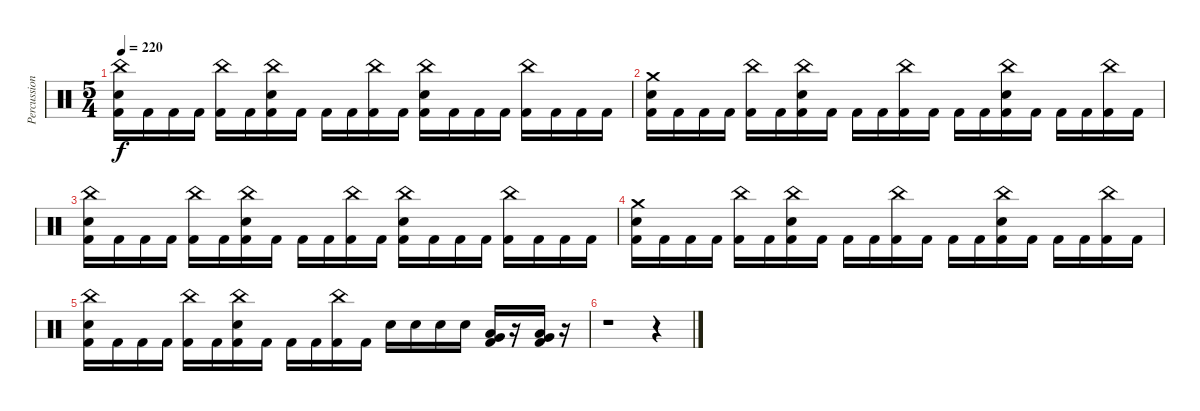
\track ("Percussion" "Percussion") {instrument percussion}
\staff {score}
\articulation defaults
\ts (5 4)
\tempo 220
\clef neutral
\ks c
("China (hit)" "Electric Snare (hit)" "Kick (hit) 2").16{dy f} "Kick (hit) 2".16 "Kick (hit) 2".16 "Kick (hit) 2".16 ("China (hit)" "Kick (hit) 2").16 "Kick (hit) 2".16 ("China (hit)" "Electric Snare (hit)" "Kick (hit) 2").16 "Kick (hit) 2".16 "Kick (hit) 2".16 "Kick (hit) 2".16 ("China (hit)" "Kick (hit) 2").16 "Kick (hit) 2".16 ("China (hit)" "Electric Snare (hit)" "Kick (hit) 2").16 "Kick (hit) 2".16 "Kick (hit) 2".16 "Kick (hit) 2".16 ("China (hit)" "Kick (hit) 2").16 "Kick (hit) 2".16 "Kick (hit) 2".16 "Kick (hit) 2".16 |
("Crash medium (hit)" "Electric Snare (hit)" "Kick (hit) 2").16 "Kick (hit) 2".16 "Kick (hit) 2".16 "Kick (hit) 2".16 ("China (hit)" "Kick (hit) 2").16 "Kick (hit) 2".16 ("China (hit)" "Electric Snare (hit)" "Kick (hit) 2").16 "Kick (hit) 2".16 "Kick (hit) 2".16 "Kick (hit) 2".16 ("China (hit)" "Kick (hit) 2").16 "Kick (hit) 2".16 "Kick (hit) 2".16 "Kick (hit) 2".16 ("China (hit)" "Electric Snare (hit)" "Kick (hit) 2").16 "Kick (hit) 2".16 "Kick (hit) 2".16 "Kick (hit) 2".16 ("China (hit)" "Kick (hit) 2").16 "Kick (hit) 2".16 |
("China (hit)" "Electric Snare (hit)" "Kick (hit) 2").16 "Kick (hit) 2".16 "Kick (hit) 2".16 "Kick (hit) 2".16 ("China (hit)" "Kick (hit) 2").16 "Kick (hit) 2".16 ("China (hit)" "Electric Snare (hit)" "Kick (hit) 2").16 "Kick (hit) 2".16 "Kick (hit) 2".16 "Kick (hit) 2".16 ("China (hit)" "Kick (hit) 2").16 "Kick (hit) 2".16 ("China (hit)" "Electric Snare (hit)" "Kick (hit) 2").16 "Kick (hit) 2".16 "Kick (hit) 2".16 "Kick (hit) 2".16 ("China (hit)" "Kick (hit) 2").16 "Kick (hit) 2".16 "Kick (hit) 2".16 "Kick (hit) 2".16 |
("Crash medium (hit)" "Electric Snare (hit)" "Kick (hit) 2").16 "Kick (hit) 2".16 "Kick (hit) 2".16 "Kick (hit) 2".16 ("China (hit)" "Kick (hit) 2").16 "Kick (hit) 2".16 ("China (hit)" "Electric Snare (hit)" "Kick (hit) 2").16 "Kick (hit) 2".16 "Kick (hit) 2".16 "Kick (hit) 2".16 ("China (hit)" "Kick (hit) 2").16 "Kick (hit) 2".16 "Kick (hit) 2".16 "Kick (hit) 2".16 ("China (hit)" "Electric Snare (hit)" "Kick (hit) 2").16 "Kick (hit) 2".16 "Kick (hit) 2".16 "Kick (hit) 2".16 ("China (hit)" "Kick (hit) 2").16 "Kick (hit) 2".16 |
("China (hit)" "Electric Snare (hit)" "Kick (hit) 2").16 "Kick (hit) 2".16 "Kick (hit) 2".16 "Kick (hit) 2".16 ("China (hit)" "Kick (hit) 2").16 "Kick (hit) 2".16 ("China (hit)" "Electric Snare (hit)" "Kick (hit) 2").16 "Kick (hit) 2".16 "Kick (hit) 2".16 "Kick (hit) 2".16 ("China (hit)" "Kick (hit) 2").16 "Kick (hit) 2".16 "Electric Snare (hit)".16 "Electric Snare (hit)".16 "Electric Snare (hit)".16 "Electric Snare (hit)".16 ("Very Low Tom (hit)" "Low Floor Tom (hit)" "Kick (hit) 2").16 r.16 ("Very Low Tom (hit)" "Low Floor Tom (hit)" "Kick (hit) 2").16 r.16 |
r.1 r.4
